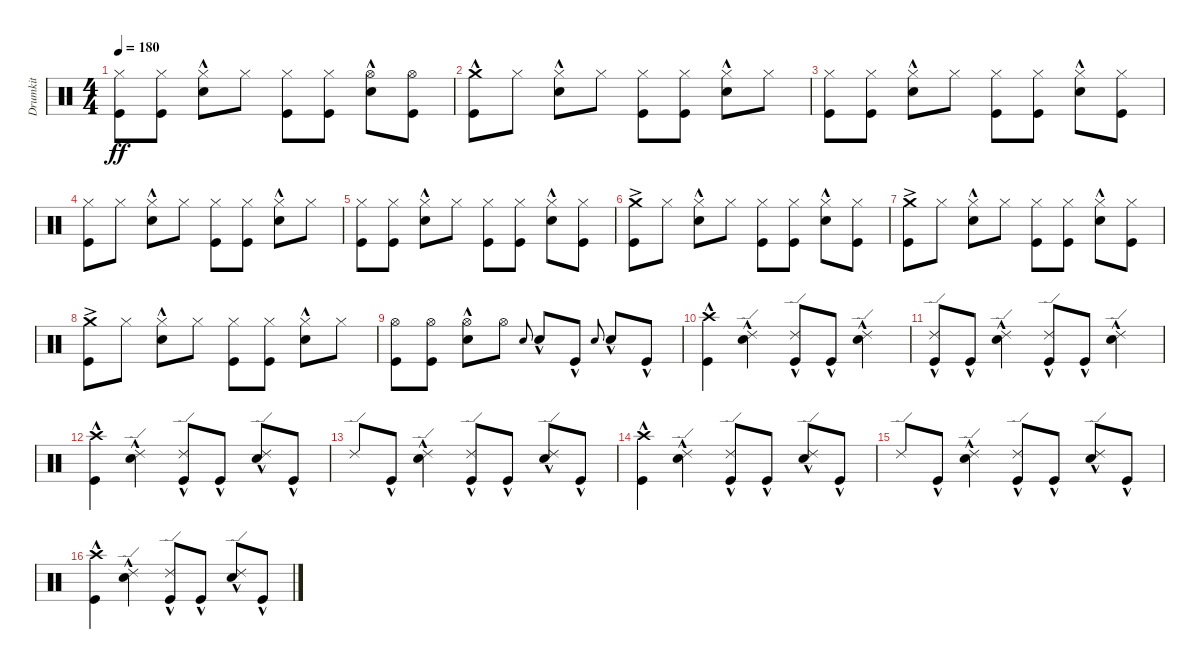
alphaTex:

\track ("Drumkit" "Drumkit") {instrument percussion}
\staff {score}
\articulation defaults
\ts (4 4)
\tempo 180
\clef neutral
\ks c
("Hi-Hat (closed)" "Kick (hit)").8{dy ff} ("Hi-Hat (closed)" "Kick (hit)").8 ("Hi-Hat (closed)" "Snare (hit) 2"{hac}).8 "Hi-Hat (closed)".8 ("Hi-Hat (closed)" "Kick (hit)").8 ("Hi-Hat (closed)" "Kick (hit)").8 ("Hi-Hat (open)" "Snare (hit) 2"{hac}).8 ("Hi-Hat (open)" "Kick (hit)").8 |
("Kick (hit)"{hac} "Crash medium (hit)"{hac}).8 "Hi-Hat (closed)".8 ("Hi-Hat (closed)" "Snare (hit) 2"{hac}).8 "Hi-Hat (closed)".8 ("Hi-Hat (closed)" "Kick (hit)").8 ("Hi-Hat (closed)" "Kick (hit)").8 ("Hi-Hat (closed)" "Snare (hit) 2"{hac}).8 "Hi-Hat (closed)".8 |
("Hi-Hat (closed)" "Kick (hit)").8 ("Hi-Hat (closed)" "Kick (hit)").8 ("Hi-Hat (closed)" "Snare (hit) 2"{hac}).8 "Hi-Hat (closed)".8 ("Hi-Hat (closed)" "Kick (hit)").8 ("Hi-Hat (closed)" "Kick (hit)").8 ("Hi-Hat (closed)" "Snare (hit) 2"{hac}).8 ("Hi-Hat (closed)" "Kick (hit)").8 |
("Kick (hit)" "Hi-Hat (closed)").8 "Hi-Hat (closed)".8 ("Hi-Hat (closed)" "Snare (hit) 2"{hac}).8 "Hi-Hat (closed)".8 ("Hi-Hat (closed)" "Kick (hit)").8 ("Hi-Hat (closed)" "Kick (hit)").8 ("Hi-Hat (closed)" "Snare (hit) 2"{hac}).8 "Hi-Hat (closed)".8 |
("Hi-Hat (closed)" "Kick (hit)").8 ("Hi-Hat (closed)" "Kick (hit)").8 ("Hi-Hat (closed)" "Snare (hit) 2"{hac}).8 "Hi-Hat (closed)".8 ("Hi-Hat (closed)" "Kick (hit)").8 ("Hi-Hat (closed)" "Kick (hit)").8 ("Hi-Hat (closed)" "Snare (hit) 2"{hac}).8 ("Hi-Hat (closed)" "Kick (hit)").8 |
("Kick (hit)" "Crash medium (hit)"{ac}).8 "Hi-Hat (closed)".8 ("Hi-Hat (closed)" "Snare (hit) 2"{hac}).8 "Hi-Hat (closed)".8 ("Hi-Hat (closed)" "Kick (hit)").8 ("Hi-Hat (closed)" "Kick (hit)").8 ("Hi-Hat (closed)" "Snare (hit) 2"{hac}).8 ("Hi-Hat (closed)" "Kick (hit)").8 |
("Kick (hit)" "Crash medium (hit)"{ac}).8 "Hi-Hat (closed)".8 ("Hi-Hat (closed)" "Snare (hit) 2"{hac}).8 "Hi-Hat (closed)".8 ("Hi-Hat (closed)" "Kick (hit)").8 ("Hi-Hat (closed)" "Kick (hit)").8 ("Hi-Hat (closed)" "Snare (hit) 2"{hac}).8 ("Hi-Hat (closed)" "Kick (hit)").8 |
("Kick (hit)" "Crash medium (hit)"{ac}).8 "Hi-Hat (closed)".8 ("Hi-Hat (closed)" "Snare (hit) 2"{hac}).8 "Hi-Hat (closed)".8 ("Hi-Hat (closed)" "Kick (hit)").8 ("Hi-Hat (closed)" "Kick (hit)").8 ("Hi-Hat (closed)" "Snare (hit) 2"{hac}).8 "Hi-Hat (closed)".8 |
("Hi-Hat (open)" "Kick (hit)").8 ("Hi-Hat (open)" "Kick (hit)").8 ("Hi-Hat (open)" "Snare (hit) 2"{hac}).8 "Hi-Hat (open)".8 "Snare (hit)".8{gr onbeat} "Snare (hit) 2"{hac}.8 "Kick (hit)"{hac}.8 "Snare (hit)".8{gr onbeat} "Snare (hit) 2"{hac}.8 "Kick (hit)"{hac}.8 |
("Kick (hit)"{hac} "Crash high (hit)"{hac}).4 ("Snare (hit) 2"{hac} "Ride (edge) 2").4 ("Ride (edge) 2" "Kick (hit)"{hac}).8 "Kick (hit)"{hac}.8 ("Snare (hit) 2"{hac} "Ride (edge) 2").4 |
("Ride (edge) 2" "Kick (hit)"{hac}).8 "Kick (hit)"{hac}.8 ("Snare (hit) 2"{hac} "Ride (edge) 2").4 ("Ride (edge) 2" "Kick (hit)"{hac}).8 "Kick (hit)"{hac}.8 ("Snare (hit) 2"{hac} "Ride (edge) 2").4 |
("Kick (hit)"{hac} "Crash high (hit)"{hac}).4 ("Snare (hit) 2"{hac} "Ride (edge) 2").4 ("Ride (edge) 2" "Kick (hit)"{hac}).8 "Kick (hit)"{hac}.8 ("Snare (hit) 2"{hac} "Ride (edge) 2").8 "Kick (hit)"{hac}.8 |
"Ride (edge) 2".8 "Kick (hit)"{hac}.8 ("Snare (hit) 2"{hac} "Ride (edge) 2").4 ("Ride (edge) 2" "Kick (hit)"{hac}).8 "Kick (hit)"{hac}.8 ("Snare (hit) 2"{hac} "Ride (edge) 2").8 "Kick (hit)"{hac}.8 |
("Kick (hit)"{hac} "Crash high (hit)"{hac}).4 ("Snare (hit) 2"{hac} "Ride (edge) 2").4 ("Ride (edge) 2" "Kick (hit)"{hac}).8 "Kick (hit)"{hac}.8 ("Snare (hit) 2"{hac} "Ride (edge) 2").8 "Kick (hit)"{hac}.8 |
"Ride (edge) 2".8 "Kick (hit)"{hac}.8 ("Snare (hit) 2"{hac} "Ride (edge) 2").4 ("Ride (edge) 2" "Kick (hit)"{hac}).8 "Kick (hit)"{hac}.8 ("Snare (hit) 2"{hac} "Ride (edge) 2").8 "Kick (hit)"{hac}.8 |
("Kick (hit)"{hac} "Crash high (hit)"{hac}).4 ("Snare (hit) 2"{hac} "Ride (edge) 2").4 ("Ride (edge) 2" "Kick (hit)"{hac}).8 "Kick (hit)"{hac}.8 ("Snare (hit) 2"{hac} "Ride (edge) 2").8 "Kick (hit)"{hac}.8
